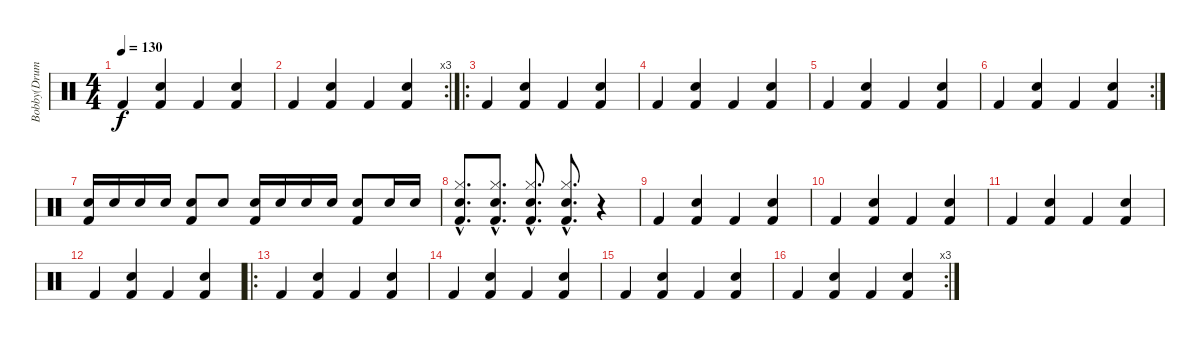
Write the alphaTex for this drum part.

\track ("Bobby(DrumSynth)" "Bobby(Drum") {instrument percussion}
\staff {score}
\articulation defaults
\ts (4 4)
\tempo 130
\clef neutral
\ks c "Kick (hit) 2".4{dy f}
("Kick (hit) 2" "Electric Snare (hit)").4 "Kick (hit) 2".4 ("Kick (hit) 2" "Electric Snare (hit)").4 |
\rc 3 "Kick (hit) 2".4
("Kick (hit) 2" "Electric Snare (hit)").4 "Kick (hit) 2".4 ("Kick (hit) 2" "Electric Snare (hit)").4 |
\ro "Kick (hit) 2".4
("Kick (hit) 2" "Electric Snare (hit)").4 "Kick (hit) 2".4 ("Kick (hit) 2" "Electric Snare (hit)").4 |
"Kick (hit) 2".4 ("Kick (hit) 2" "Electric Snare (hit)").4 "Kick (hit) 2".4 ("Kick (hit) 2" "Electric Snare (hit)").4 |
"Kick (hit) 2".4 ("Kick (hit) 2" "Electric Snare (hit)").4 "Kick (hit) 2".4 ("Kick (hit) 2" "Electric Snare (hit)").4 |
\rc 2 "Kick (hit) 2".4
("Kick (hit) 2" "Electric Snare (hit)").4 "Kick (hit) 2".4 ("Kick (hit) 2" "Electric Snare (hit)").4 |
("Kick (hit) 2" "Electric Snare (hit)").16 "Electric Snare (hit)".16 "Electric Snare (hit)".16 "Electric Snare (hit)".16 ("Kick (hit) 2" "Electric Snare (hit)").8 "Electric Snare (hit)".8 ("Kick (hit) 2" "Electric Snare (hit)").16 "Electric Snare (hit)".16 "Electric Snare (hit)".16 "Electric Snare (hit)".16 ("Kick (hit) 2" "Electric Snare (hit)").8 "Electric Snare (hit)".16 "Electric Snare (hit)".16 |
("Hi-Hat (closed)"{hac} "Kick (hit) 2"{hac} "Snare (hit) 2"{hac}).8{d} ("Hi-Hat (closed)"{hac} "Kick (hit) 2"{hac} "Snare (hit) 2"{hac}).8{d} ("Hi-Hat (closed)"{hac} "Kick (hit) 2"{hac} "Snare (hit) 2"{hac}).8{d} ("Hi-Hat (closed)"{hac} "Kick (hit) 2"{hac} "Snare (hit) 2"{hac}).8{d} r.4 |
"Kick (hit) 2".4 ("Kick (hit) 2" "Electric Snare (hit)").4 "Kick (hit) 2".4 ("Kick (hit) 2" "Electric Snare (hit)").4 |
"Kick (hit) 2".4 ("Kick (hit) 2" "Electric Snare (hit)").4 "Kick (hit) 2".4 ("Kick (hit) 2" "Electric Snare (hit)").4 |
"Kick (hit) 2".4 ("Kick (hit) 2" "Electric Snare (hit)").4 "Kick (hit) 2".4 ("Kick (hit) 2" "Electric Snare (hit)").4 |
"Kick (hit) 2".4 ("Kick (hit) 2" "Electric Snare (hit)").4 "Kick (hit) 2".4 ("Kick (hit) 2" "Electric Snare (hit)").4 |
\ro "Kick (hit) 2".4
("Kick (hit) 2" "Electric Snare (hit)").4 "Kick (hit) 2".4 ("Kick (hit) 2" "Electric Snare (hit)").4 |
"Kick (hit) 2".4 ("Kick (hit) 2" "Electric Snare (hit)").4 "Kick (hit) 2".4 ("Kick (hit) 2" "Electric Snare (hit)").4 |
"Kick (hit) 2".4 ("Kick (hit) 2" "Electric Snare (hit)").4 "Kick (hit) 2".4 ("Kick (hit) 2" "Electric Snare (hit)").4 |
\rc 3 "Kick (hit) 2".4
("Kick (hit) 2" "Electric Snare (hit)").4 "Kick (hit) 2".4 ("Kick (hit) 2" "Electric Snare (hit)").4
